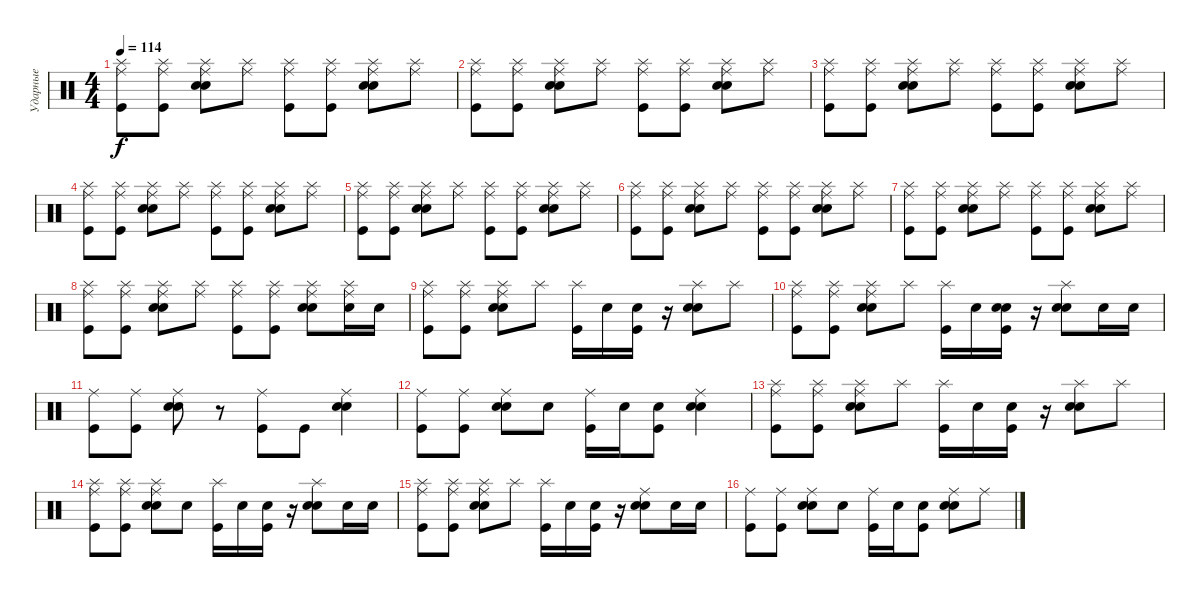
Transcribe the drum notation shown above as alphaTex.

\track ("Ударные" "Ударные") {instrument percussion}
\staff {score}
\articulation defaults
\ts (4 4)
\tempo 114
\clef neutral
\ks c
("Splash (hit)" "Ride (middle)" "Kick (hit)").8{dy f} ("Splash (hit)" "Ride (middle)" "Kick (hit)").8 ("Splash (hit)" "Ride (middle)" "Electric Snare (hit)" "Snare (hit) 2").8 ("Splash (hit)" "Ride (middle)").8 ("Splash (hit)" "Ride (middle)" "Kick (hit)").8 ("Splash (hit)" "Ride (middle)" "Kick (hit)").8 ("Splash (hit)" "Ride (middle)" "Electric Snare (hit)" "Snare (hit) 2").8 ("Splash (hit)" "Ride (middle)").8 |
("Splash (hit)" "Ride (middle)" "Kick (hit)").8 ("Splash (hit)" "Ride (middle)" "Kick (hit)").8 ("Splash (hit)" "Ride (middle)" "Electric Snare (hit)" "Snare (hit) 2").8 ("Splash (hit)" "Ride (middle)").8 ("Splash (hit)" "Ride (middle)" "Kick (hit)").8 ("Splash (hit)" "Ride (middle)" "Kick (hit)").8 ("Splash (hit)" "Ride (middle)" "Electric Snare (hit)" "Snare (hit) 2").8 ("Splash (hit)" "Ride (middle)").8 |
("Splash (hit)" "Ride (middle)" "Kick (hit)").8 ("Splash (hit)" "Ride (middle)" "Kick (hit)").8 ("Splash (hit)" "Ride (middle)" "Electric Snare (hit)" "Snare (hit) 2").8 ("Splash (hit)" "Ride (middle)").8 ("Splash (hit)" "Ride (middle)" "Kick (hit)").8 ("Splash (hit)" "Ride (middle)" "Kick (hit)").8 ("Splash (hit)" "Ride (middle)" "Electric Snare (hit)" "Snare (hit) 2").8 ("Splash (hit)" "Ride (middle)").8 |
("Splash (hit)" "Ride (middle)" "Kick (hit)").8 ("Splash (hit)" "Ride (middle)" "Kick (hit)").8 ("Splash (hit)" "Ride (middle)" "Electric Snare (hit)" "Snare (hit) 2").8 ("Splash (hit)" "Ride (middle)").8 ("Splash (hit)" "Ride (middle)" "Kick (hit)").8 ("Splash (hit)" "Ride (middle)" "Kick (hit)").8 ("Splash (hit)" "Ride (middle)" "Electric Snare (hit)" "Snare (hit) 2").8 ("Splash (hit)" "Ride (middle)").8 |
("Splash (hit)" "Ride (middle)" "Kick (hit)").8 ("Splash (hit)" "Ride (middle)" "Kick (hit)").8 ("Splash (hit)" "Ride (middle)" "Electric Snare (hit)" "Snare (hit) 2").8 ("Splash (hit)" "Ride (middle)").8 ("Splash (hit)" "Ride (middle)" "Kick (hit)").8 ("Splash (hit)" "Ride (middle)" "Kick (hit)").8 ("Splash (hit)" "Ride (middle)" "Electric Snare (hit)" "Snare (hit) 2").8 ("Splash (hit)" "Ride (middle)").8 |
("Splash (hit)" "Ride (middle)" "Kick (hit)").8 ("Splash (hit)" "Ride (middle)" "Kick (hit)").8 ("Splash (hit)" "Ride (middle)" "Electric Snare (hit)" "Snare (hit) 2").8 ("Splash (hit)" "Ride (middle)").8 ("Splash (hit)" "Ride (middle)" "Kick (hit)").8 ("Splash (hit)" "Ride (middle)" "Kick (hit)").8 ("Splash (hit)" "Ride (middle)" "Electric Snare (hit)" "Snare (hit) 2").8 ("Splash (hit)" "Ride (middle)").8 |
("Splash (hit)" "Ride (middle)" "Kick (hit)").8 ("Splash (hit)" "Ride (middle)" "Kick (hit)").8 ("Splash (hit)" "Ride (middle)" "Electric Snare (hit)" "Snare (hit) 2").8 ("Splash (hit)" "Ride (middle)").8 ("Splash (hit)" "Ride (middle)" "Kick (hit)").8 ("Splash (hit)" "Ride (middle)" "Kick (hit)").8 ("Splash (hit)" "Ride (middle)" "Electric Snare (hit)" "Snare (hit) 2").8 ("Splash (hit)" "Ride (middle)").8 |
("Splash (hit)" "Ride (middle)" "Kick (hit)").8 ("Splash (hit)" "Ride (middle)" "Kick (hit)").8 ("Splash (hit)" "Ride (middle)" "Electric Snare (hit)" "Snare (hit) 2").8 ("Splash (hit)" "Ride (middle)").8 ("Splash (hit)" "Ride (middle)" "Kick (hit)").8 ("Splash (hit)" "Ride (middle)" "Kick (hit)").8 ("Splash (hit)" "Ride (middle)" "Electric Snare (hit)" "Snare (hit) 2").8 ("Splash (hit)" "Ride (middle)" "Electric Snare (hit)").16 "Electric Snare (hit)".16 |
("Splash (hit)" "Ride (middle)" "Kick (hit)").8 ("Splash (hit)" "Ride (middle)" "Kick (hit)").8 ("Splash (hit)" "Ride (middle)" "Electric Snare (hit)" "Snare (hit) 2").8 "Splash (hit)".8 ("Splash (hit)" "Kick (hit)").16 "Electric Snare (hit)".16 ("Snare (hit) 2" "Kick (hit)").16 r.16 ("Splash (hit)" "Electric Snare (hit)" "Snare (hit) 2").8 "Splash (hit)".8 |
("Splash (hit)" "Ride (middle)" "Kick (hit)").8 ("Splash (hit)" "Ride (middle)" "Kick (hit)").8 ("Splash (hit)" "Ride (middle)" "Electric Snare (hit)" "Snare (hit) 2").8 "Splash (hit)".8 ("Splash (hit)" "Kick (hit)").16 "Electric Snare (hit)".16 ("Electric Snare (hit)" "Snare (hit) 2" "Kick (hit)").16 r.16 ("Splash (hit)" "Electric Snare (hit)" "Snare (hit) 2").8 "Electric Snare (hit)".16 "Electric Snare (hit)".16 |
("Ride (middle)" "Kick (hit)").8 ("Ride (middle)" "Kick (hit)").8 ("Ride (middle)" "Electric Snare (hit)" "Snare (hit) 2").8 r.8 ("Ride (middle)" "Kick (hit)").8 "Kick (hit)".8 ("Ride (middle)" "Electric Snare (hit)" "Snare (hit) 2").4 |
("Ride (middle)" "Kick (hit)").8 ("Ride (middle)" "Kick (hit)").8 ("Ride (middle)" "Electric Snare (hit)" "Snare (hit) 2").8 "Electric Snare (hit)".8 ("Ride (middle)" "Kick (hit)").16 "Electric Snare (hit)".16 ("Snare (hit) 2" "Kick (hit)").8 ("Ride (middle)" "Electric Snare (hit)" "Snare (hit) 2").4 |
("Splash (hit)" "Ride (middle)" "Kick (hit)").8 ("Splash (hit)" "Ride (middle)" "Kick (hit)").8 ("Splash (hit)" "Ride (middle)" "Electric Snare (hit)" "Snare (hit) 2").8 "Splash (hit)".8 ("Splash (hit)" "Kick (hit)").16 "Electric Snare (hit)".16 ("Snare (hit) 2" "Kick (hit)").16 r.16 ("Splash (hit)" "Electric Snare (hit)" "Snare (hit) 2").8 "Splash (hit)".8 |
("Splash (hit)" "Ride (middle)" "Kick (hit)").8 ("Splash (hit)" "Ride (middle)" "Kick (hit)").8 ("Splash (hit)" "Ride (middle)" "Electric Snare (hit)" "Snare (hit) 2").8 "Electric Snare (hit)".8 ("Splash (hit)" "Kick (hit)").16 "Electric Snare (hit)".16 ("Snare (hit) 2" "Kick (hit)").16 r.16 ("Splash (hit)" "Electric Snare (hit)" "Snare (hit) 2").8 "Electric Snare (hit)".16 "Electric Snare (hit)".16 |
("Splash (hit)" "Ride (middle)" "Kick (hit)").8 ("Splash (hit)" "Ride (middle)" "Kick (hit)").8 ("Splash (hit)" "Ride (middle)" "Electric Snare (hit)" "Snare (hit) 2").8 "Splash (hit)".8 ("Splash (hit)" "Kick (hit)").16 "Electric Snare (hit)".16 ("Snare (hit) 2" "Kick (hit)").16 r.16 ("Ride (middle)" "Electric Snare (hit)" "Snare (hit) 2").8 "Electric Snare (hit)".16 "Electric Snare (hit)".16 |
("Ride (middle)" "Kick (hit)").8 ("Ride (middle)" "Kick (hit)").8 ("Ride (middle)" "Electric Snare (hit)" "Snare (hit) 2").8 "Electric Snare (hit)".8 ("Ride (middle)" "Kick (hit)").16 "Electric Snare (hit)".16 ("Electric Snare (hit)" "Kick (hit)").8 ("Ride (middle)" "Electric Snare (hit)" "Snare (hit) 2").8 "Ride (middle)".8
